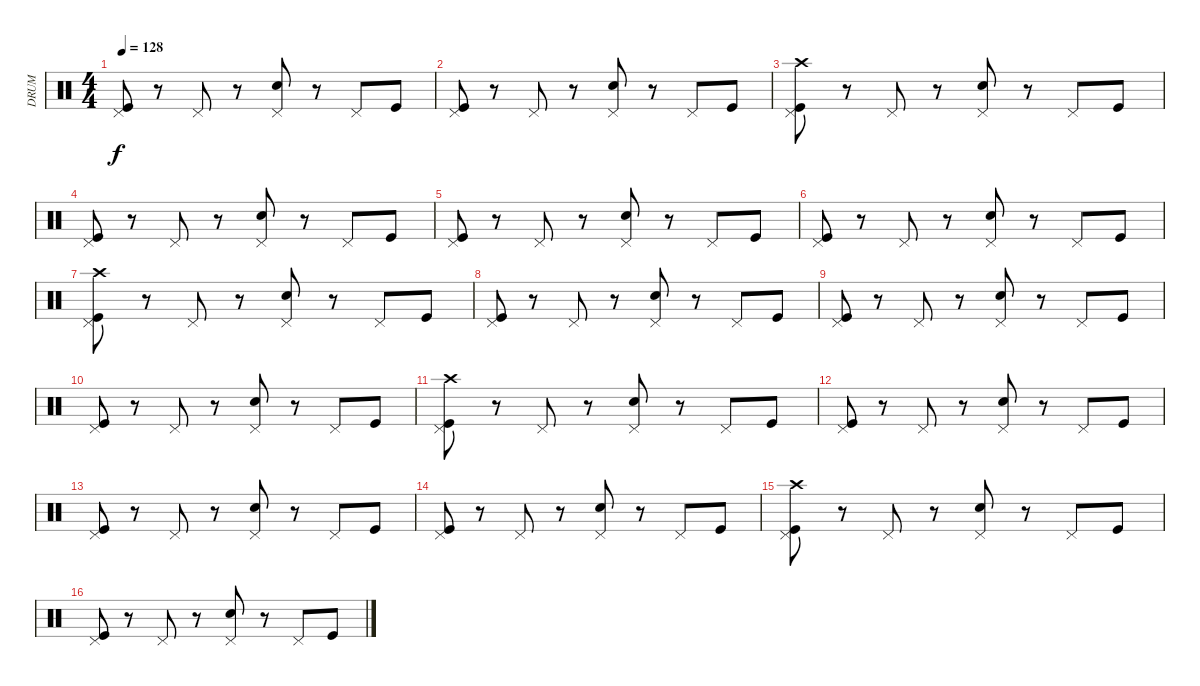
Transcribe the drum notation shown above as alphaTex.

\track ("DRUM" "DRUM") {instrument percussion}
\staff {score}
\articulation defaults
\ts (4 4)
\tempo 128
\clef neutral
\ks c
("Pedal Hi-Hat (hit)" "Kick (hit)").8{dy f} r.8 "Pedal Hi-Hat (hit)".8 r.8 ("Pedal Hi-Hat (hit)" "Snare (hit) 2").8 r.8 "Pedal Hi-Hat (hit)".8 "Kick (hit)".8 |
("Pedal Hi-Hat (hit)" "Kick (hit)").8 r.8 "Pedal Hi-Hat (hit)".8 r.8 ("Pedal Hi-Hat (hit)" "Snare (hit) 2").8 r.8 "Pedal Hi-Hat (hit)".8 "Kick (hit)".8 |
("Pedal Hi-Hat (hit)" "Crash high (hit)" "Kick (hit)").8 r.8 "Pedal Hi-Hat (hit)".8 r.8 ("Pedal Hi-Hat (hit)" "Snare (hit) 2").8 r.8 "Pedal Hi-Hat (hit)".8 "Kick (hit)".8 |
("Pedal Hi-Hat (hit)" "Kick (hit)").8 r.8 "Pedal Hi-Hat (hit)".8 r.8 ("Pedal Hi-Hat (hit)" "Snare (hit) 2").8 r.8 "Pedal Hi-Hat (hit)".8 "Kick (hit)".8 |
("Pedal Hi-Hat (hit)" "Kick (hit)").8 r.8 "Pedal Hi-Hat (hit)".8 r.8 ("Pedal Hi-Hat (hit)" "Snare (hit) 2").8 r.8 "Pedal Hi-Hat (hit)".8 "Kick (hit)".8 |
("Pedal Hi-Hat (hit)" "Kick (hit)").8 r.8 "Pedal Hi-Hat (hit)".8 r.8 ("Pedal Hi-Hat (hit)" "Snare (hit) 2").8 r.8 "Pedal Hi-Hat (hit)".8 "Kick (hit)".8 |
("Pedal Hi-Hat (hit)" "Crash high (hit)" "Kick (hit)").8 r.8 "Pedal Hi-Hat (hit)".8 r.8 ("Pedal Hi-Hat (hit)" "Snare (hit) 2").8 r.8 "Pedal Hi-Hat (hit)".8 "Kick (hit)".8 |
("Pedal Hi-Hat (hit)" "Kick (hit)").8 r.8 "Pedal Hi-Hat (hit)".8 r.8 ("Pedal Hi-Hat (hit)" "Snare (hit) 2").8 r.8 "Pedal Hi-Hat (hit)".8 "Kick (hit)".8 |
("Pedal Hi-Hat (hit)" "Kick (hit)").8 r.8 "Pedal Hi-Hat (hit)".8 r.8 ("Pedal Hi-Hat (hit)" "Snare (hit) 2").8 r.8 "Pedal Hi-Hat (hit)".8 "Kick (hit)".8 |
("Pedal Hi-Hat (hit)" "Kick (hit)").8 r.8 "Pedal Hi-Hat (hit)".8 r.8 ("Pedal Hi-Hat (hit)" "Snare (hit) 2").8 r.8 "Pedal Hi-Hat (hit)".8 "Kick (hit)".8 |
("Pedal Hi-Hat (hit)" "Crash high (hit)" "Kick (hit)").8 r.8 "Pedal Hi-Hat (hit)".8 r.8 ("Pedal Hi-Hat (hit)" "Snare (hit) 2").8 r.8 "Pedal Hi-Hat (hit)".8 "Kick (hit)".8 |
("Pedal Hi-Hat (hit)" "Kick (hit)").8 r.8 "Pedal Hi-Hat (hit)".8 r.8 ("Pedal Hi-Hat (hit)" "Snare (hit) 2").8 r.8 "Pedal Hi-Hat (hit)".8 "Kick (hit)".8 |
("Pedal Hi-Hat (hit)" "Kick (hit)").8 r.8 "Pedal Hi-Hat (hit)".8 r.8 ("Pedal Hi-Hat (hit)" "Snare (hit) 2").8 r.8 "Pedal Hi-Hat (hit)".8 "Kick (hit)".8 |
("Pedal Hi-Hat (hit)" "Kick (hit)").8 r.8 "Pedal Hi-Hat (hit)".8 r.8 ("Pedal Hi-Hat (hit)" "Snare (hit) 2").8 r.8 "Pedal Hi-Hat (hit)".8 "Kick (hit)".8 |
("Pedal Hi-Hat (hit)" "Crash high (hit)" "Kick (hit)").8 r.8 "Pedal Hi-Hat (hit)".8 r.8 ("Pedal Hi-Hat (hit)" "Snare (hit) 2").8 r.8 "Pedal Hi-Hat (hit)".8 "Kick (hit)".8 |
("Pedal Hi-Hat (hit)" "Kick (hit)").8 r.8 "Pedal Hi-Hat (hit)".8 r.8 ("Pedal Hi-Hat (hit)" "Snare (hit) 2").8 r.8 "Pedal Hi-Hat (hit)".8 "Kick (hit)".8
